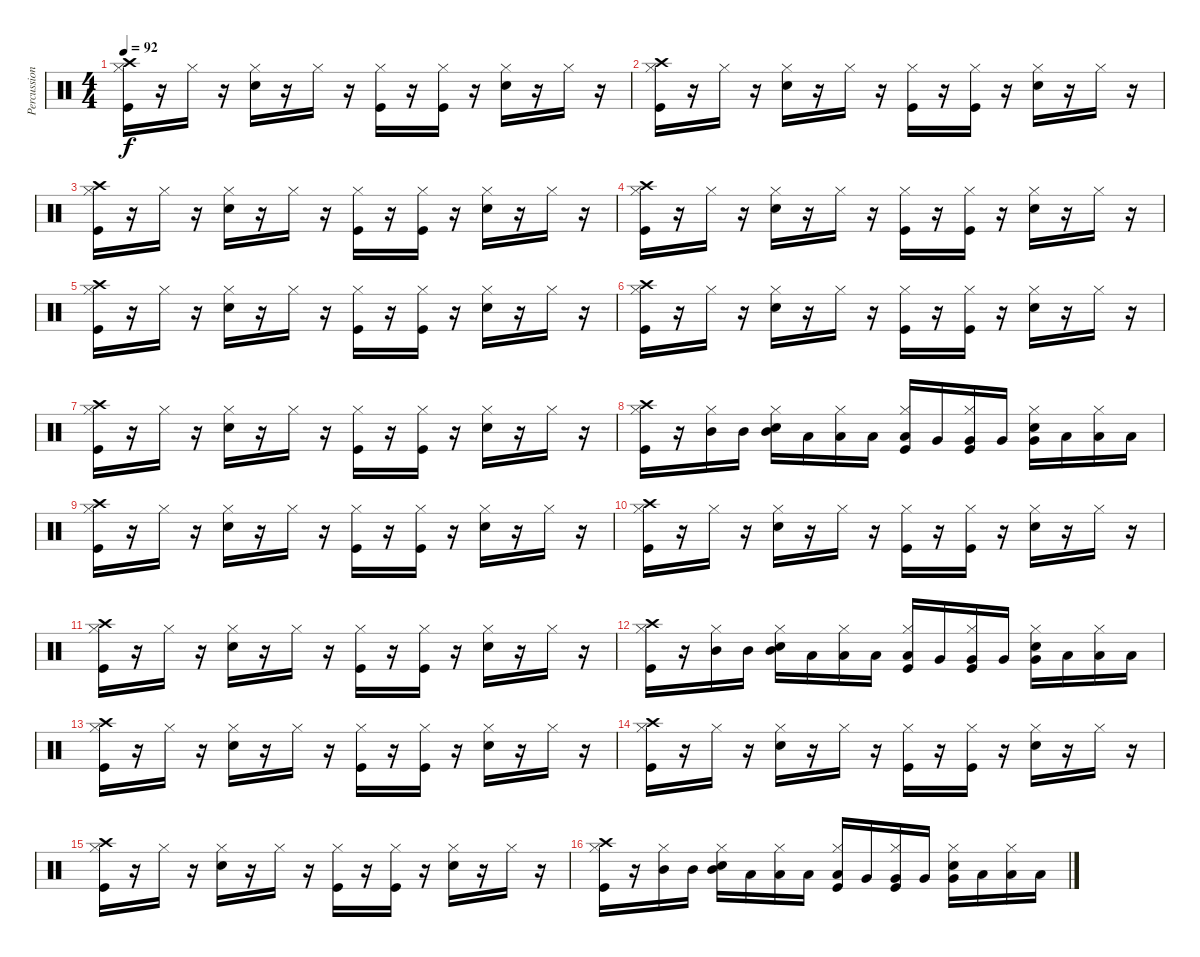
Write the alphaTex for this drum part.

\track ("Percussion" "Percussion") {instrument percussion}
\staff {score}
\articulation defaults
\ts (4 4)
\tempo 92
\clef neutral
\ks c
("Crash high (hit)" "Kick (hit)" "Hi-Hat (closed)").16{dy f} r.16 "Hi-Hat (closed)".16 r.16 ("Hi-Hat (closed)" "Snare (hit) 2").16 r.16 "Hi-Hat (closed)".16 r.16 ("Kick (hit)" "Hi-Hat (closed)").16 r.16 ("Kick (hit)" "Hi-Hat (closed)").16 r.16 ("Snare (hit) 2" "Hi-Hat (closed)").16 r.16 "Hi-Hat (closed)".16 r.16 |
("Crash high (hit)" "Kick (hit)" "Hi-Hat (closed)").16 r.16 "Hi-Hat (closed)".16 r.16 ("Hi-Hat (closed)" "Snare (hit) 2").16 r.16 "Hi-Hat (closed)".16 r.16 ("Kick (hit)" "Hi-Hat (closed)").16 r.16 ("Kick (hit)" "Hi-Hat (closed)").16 r.16 ("Snare (hit) 2" "Hi-Hat (closed)").16 r.16 "Hi-Hat (closed)".16 r.16 |
("Crash high (hit)" "Kick (hit)" "Hi-Hat (closed)").16 r.16 "Hi-Hat (closed)".16 r.16 ("Hi-Hat (closed)" "Snare (hit) 2").16 r.16 "Hi-Hat (closed)".16 r.16 ("Kick (hit)" "Hi-Hat (closed)").16 r.16 ("Kick (hit)" "Hi-Hat (closed)").16 r.16 ("Snare (hit) 2" "Hi-Hat (closed)").16 r.16 "Hi-Hat (closed)".16 r.16 |
("Crash high (hit)" "Kick (hit)" "Hi-Hat (closed)").16 r.16 "Hi-Hat (closed)".16 r.16 ("Hi-Hat (closed)" "Snare (hit) 2").16 r.16 "Hi-Hat (closed)".16 r.16 ("Kick (hit)" "Hi-Hat (closed)").16 r.16 ("Kick (hit)" "Hi-Hat (closed)").16 r.16 ("Snare (hit) 2" "Hi-Hat (closed)").16 r.16 "Hi-Hat (closed)".16 r.16 |
("Crash high (hit)" "Kick (hit)" "Hi-Hat (closed)").16 r.16 "Hi-Hat (closed)".16 r.16 ("Hi-Hat (closed)" "Snare (hit) 2").16 r.16 "Hi-Hat (closed)".16 r.16 ("Kick (hit)" "Hi-Hat (closed)").16 r.16 ("Kick (hit)" "Hi-Hat (closed)").16 r.16 ("Snare (hit) 2" "Hi-Hat (closed)").16 r.16 "Hi-Hat (closed)".16 r.16 |
("Crash high (hit)" "Kick (hit)" "Hi-Hat (closed)").16 r.16 "Hi-Hat (closed)".16 r.16 ("Hi-Hat (closed)" "Snare (hit) 2").16 r.16 "Hi-Hat (closed)".16 r.16 ("Kick (hit)" "Hi-Hat (closed)").16 r.16 ("Kick (hit)" "Hi-Hat (closed)").16 r.16 ("Snare (hit) 2" "Hi-Hat (closed)").16 r.16 "Hi-Hat (closed)".16 r.16 |
("Crash high (hit)" "Kick (hit)" "Hi-Hat (closed)").16 r.16 "Hi-Hat (closed)".16 r.16 ("Hi-Hat (closed)" "Snare (hit) 2").16 r.16 "Hi-Hat (closed)".16 r.16 ("Kick (hit)" "Hi-Hat (closed)").16 r.16 ("Kick (hit)" "Hi-Hat (closed)").16 r.16 ("Snare (hit) 2" "Hi-Hat (closed)").16 r.16 "Hi-Hat (closed)".16 r.16 |
("Crash high (hit)" "Kick (hit)" "Hi-Hat (closed)").16 r.16 ("Hi-Hat (closed)" "Mid Tom (hit)").16 "Mid Tom (hit)".16 ("Hi-Hat (closed)" "Snare (hit) 2" "Mid Tom (hit)").16 "Low Tom (hit)".16 ("Hi-Hat (closed)" "Low Tom (hit)").16 "Low Tom (hit)".16 ("Kick (hit)" "Hi-Hat (closed)" "Low Tom (hit)").16 "Very Low Tom (hit)".16 ("Kick (hit)" "Hi-Hat (closed)" "Very Low Tom (hit)").16 "Very Low Tom (hit)".16 ("Snare (hit) 2" "Hi-Hat (closed)" "Very Low Tom (hit)").16 "Low Floor Tom (hit)".16 ("Hi-Hat (closed)" "Low Floor Tom (hit)").16 "Low Floor Tom (hit)".16 |
("Crash high (hit)" "Kick (hit)" "Hi-Hat (closed)").16 r.16 "Hi-Hat (closed)".16 r.16 ("Hi-Hat (closed)" "Snare (hit) 2").16 r.16 "Hi-Hat (closed)".16 r.16 ("Kick (hit)" "Hi-Hat (closed)").16 r.16 ("Kick (hit)" "Hi-Hat (closed)").16 r.16 ("Snare (hit) 2" "Hi-Hat (closed)").16 r.16 "Hi-Hat (closed)".16 r.16 |
("Crash high (hit)" "Kick (hit)" "Hi-Hat (closed)").16 r.16 "Hi-Hat (closed)".16 r.16 ("Hi-Hat (closed)" "Snare (hit) 2").16 r.16 "Hi-Hat (closed)".16 r.16 ("Kick (hit)" "Hi-Hat (closed)").16 r.16 ("Kick (hit)" "Hi-Hat (closed)").16 r.16 ("Snare (hit) 2" "Hi-Hat (closed)").16 r.16 "Hi-Hat (closed)".16 r.16 |
("Crash high (hit)" "Kick (hit)" "Hi-Hat (closed)").16 r.16 "Hi-Hat (closed)".16 r.16 ("Hi-Hat (closed)" "Snare (hit) 2").16 r.16 "Hi-Hat (closed)".16 r.16 ("Kick (hit)" "Hi-Hat (closed)").16 r.16 ("Kick (hit)" "Hi-Hat (closed)").16 r.16 ("Snare (hit) 2" "Hi-Hat (closed)").16 r.16 "Hi-Hat (closed)".16 r.16 |
("Crash high (hit)" "Kick (hit)" "Hi-Hat (closed)").16 r.16 ("Hi-Hat (closed)" "Mid Tom (hit)").16 "Mid Tom (hit)".16 ("Hi-Hat (closed)" "Snare (hit) 2" "Mid Tom (hit)").16 "Low Tom (hit)".16 ("Hi-Hat (closed)" "Low Tom (hit)").16 "Low Tom (hit)".16 ("Kick (hit)" "Hi-Hat (closed)" "Low Tom (hit)").16 "Very Low Tom (hit)".16 ("Kick (hit)" "Hi-Hat (closed)" "Very Low Tom (hit)").16 "Very Low Tom (hit)".16 ("Snare (hit) 2" "Hi-Hat (closed)" "Very Low Tom (hit)").16 "Low Floor Tom (hit)".16 ("Hi-Hat (closed)" "Low Floor Tom (hit)").16 "Low Floor Tom (hit)".16 |
("Crash high (hit)" "Kick (hit)" "Hi-Hat (closed)").16 r.16 "Hi-Hat (closed)".16 r.16 ("Hi-Hat (closed)" "Snare (hit) 2").16 r.16 "Hi-Hat (closed)".16 r.16 ("Kick (hit)" "Hi-Hat (closed)").16 r.16 ("Kick (hit)" "Hi-Hat (closed)").16 r.16 ("Snare (hit) 2" "Hi-Hat (closed)").16 r.16 "Hi-Hat (closed)".16 r.16 |
("Crash high (hit)" "Kick (hit)" "Hi-Hat (closed)").16 r.16 "Hi-Hat (closed)".16 r.16 ("Hi-Hat (closed)" "Snare (hit) 2").16 r.16 "Hi-Hat (closed)".16 r.16 ("Kick (hit)" "Hi-Hat (closed)").16 r.16 ("Kick (hit)" "Hi-Hat (closed)").16 r.16 ("Snare (hit) 2" "Hi-Hat (closed)").16 r.16 "Hi-Hat (closed)".16 r.16 |
("Crash high (hit)" "Kick (hit)" "Hi-Hat (closed)").16 r.16 "Hi-Hat (closed)".16 r.16 ("Hi-Hat (closed)" "Snare (hit) 2").16 r.16 "Hi-Hat (closed)".16 r.16 ("Kick (hit)" "Hi-Hat (closed)").16 r.16 ("Kick (hit)" "Hi-Hat (closed)").16 r.16 ("Snare (hit) 2" "Hi-Hat (closed)").16 r.16 "Hi-Hat (closed)".16 r.16 |
("Crash high (hit)" "Kick (hit)" "Hi-Hat (closed)").16 r.16 ("Hi-Hat (closed)" "Mid Tom (hit)").16 "Mid Tom (hit)".16 ("Hi-Hat (closed)" "Snare (hit) 2" "Mid Tom (hit)").16 "Low Tom (hit)".16 ("Hi-Hat (closed)" "Low Tom (hit)").16 "Low Tom (hit)".16 ("Kick (hit)" "Hi-Hat (closed)" "Low Tom (hit)").16 "Very Low Tom (hit)".16 ("Kick (hit)" "Hi-Hat (closed)" "Very Low Tom (hit)").16 "Very Low Tom (hit)".16 ("Snare (hit) 2" "Hi-Hat (closed)" "Very Low Tom (hit)").16 "Low Floor Tom (hit)".16 ("Hi-Hat (closed)" "Low Floor Tom (hit)").16 "Low Floor Tom (hit)".16
